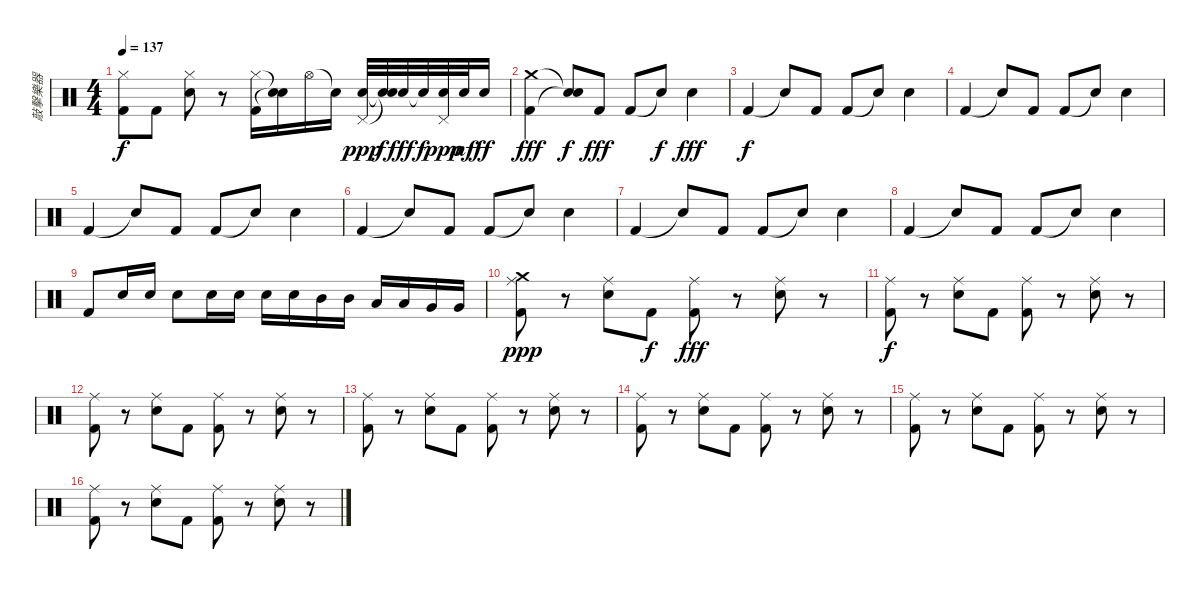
\track ("敲擊樂器" "敲擊樂器") {instrument percussion}
\staff {score}
\articulation defaults
\ts (4 4)
\tempo 137
\clef neutral
\ks c
("Kick (hit) 2" "Hi-Hat (closed)").8{dy f} "Kick (hit) 2".8 ("Snare (hit) 2" "Hi-Hat (closed)").8 r.8 ("Kick (hit) 2" "Hi-Hat (closed)").16 ("Snare (hit)"{t} "Snare (hit)"{t}).16 "Hi-Hat (open)".16 "Snare (hit)"{t}.16 ("Electric Snare (hit)" "Pedal Hi-Hat (hit)").32{dy ppp} ("Snare (hit)"{t} "Snare (hit)"{t}).32{dy f} "Electric Snare (hit)".32{dy fff} "Snare (hit)"{t}.32{dy f} ("Electric Snare (hit)" "Pedal Hi-Hat (hit)").32{dy ppp} "Electric Snare (hit)".32{dy mf} "Electric Snare (hit)".16{dy ff} |
("Kick (hit) 2" "Crash medium (hit)").4{dy fff} ("Snare (hit)"{t} "Snare (hit)"{t}).8{dy f} "Kick (hit) 2".8{dy fff} "Kick (hit) 2".8 "Snare (hit)"{t}.8{dy f} "Snare (hit) 2".4{dy fff} |
"Kick (hit) 2".4{dy f} "Snare (hit)"{t}.8 "Kick (hit) 2".8 "Kick (hit) 2".8 "Snare (hit)"{t}.8 "Snare (hit) 2".4 |
"Kick (hit) 2".4 "Snare (hit)"{t}.8 "Kick (hit) 2".8 "Kick (hit) 2".8 "Snare (hit)"{t}.8 "Snare (hit) 2".4 |
"Kick (hit) 2".4 "Snare (hit)"{t}.8 "Kick (hit) 2".8 "Kick (hit) 2".8 "Snare (hit)"{t}.8 "Snare (hit) 2".4 |
"Kick (hit) 2".4 "Snare (hit)"{t}.8 "Kick (hit) 2".8 "Kick (hit) 2".8 "Snare (hit)"{t}.8 "Snare (hit) 2".4 |
"Kick (hit) 2".4 "Snare (hit)"{t}.8 "Kick (hit) 2".8 "Kick (hit) 2".8 "Snare (hit)"{t}.8 "Snare (hit) 2".4 |
"Kick (hit) 2".4 "Snare (hit)"{t}.8 "Kick (hit) 2".8 "Kick (hit) 2".8 "Snare (hit)"{t}.8 "Snare (hit) 2".4 |
"Kick (hit) 2".8 "Snare (hit) 2".16 "Snare (hit) 2".16 "Snare (hit) 2".8 "Snare (hit) 2".16 "Snare (hit) 2".16 "Snare (hit) 2".16 "Snare (hit) 2".16 "Mid Tom (hit)".16 "Mid Tom (hit)".16 "Low Tom (hit)".16 "Low Tom (hit)".16 "Very Low Tom (hit)".16 "Very Low Tom (hit)".16 |
("Crash medium (hit)" "Kick (hit) 2" "Ride (middle)").8{dy ppp} r.8 ("Snare (hit) 2" "Ride (middle)").8 "Kick (hit) 2".8{dy f} ("Kick (hit) 2" "Ride (middle)").8{dy fff} r.8 ("Snare (hit) 2" "Ride (middle)").8 r.8 |
("Kick (hit) 2" "Ride (middle)").8{dy f} r.8 ("Snare (hit) 2" "Ride (middle)").8 "Kick (hit) 2".8 ("Kick (hit) 2" "Ride (middle)").8 r.8 ("Snare (hit) 2" "Ride (middle)").8 r.8 |
("Kick (hit) 2" "Ride (middle)").8 r.8 ("Snare (hit) 2" "Ride (middle)").8 "Kick (hit) 2".8 ("Kick (hit) 2" "Ride (middle)").8 r.8 ("Snare (hit) 2" "Ride (middle)").8 r.8 |
("Kick (hit) 2" "Ride (middle)").8 r.8 ("Snare (hit) 2" "Ride (middle)").8 "Kick (hit) 2".8 ("Kick (hit) 2" "Ride (middle)").8 r.8 ("Snare (hit) 2" "Ride (middle)").8 r.8 |
("Kick (hit) 2" "Ride (middle)").8 r.8 ("Snare (hit) 2" "Ride (middle)").8 "Kick (hit) 2".8 ("Kick (hit) 2" "Ride (middle)").8 r.8 ("Snare (hit) 2" "Ride (middle)").8 r.8 |
("Kick (hit) 2" "Ride (middle)").8 r.8 ("Snare (hit) 2" "Ride (middle)").8 "Kick (hit) 2".8 ("Kick (hit) 2" "Ride (middle)").8 r.8 ("Snare (hit) 2" "Ride (middle)").8 r.8 |
("Kick (hit) 2" "Ride (middle)").8 r.8 ("Snare (hit) 2" "Ride (middle)").8 "Kick (hit) 2".8 ("Kick (hit) 2" "Ride (middle)").8 r.8 ("Snare (hit) 2" "Ride (middle)").8 r.8
